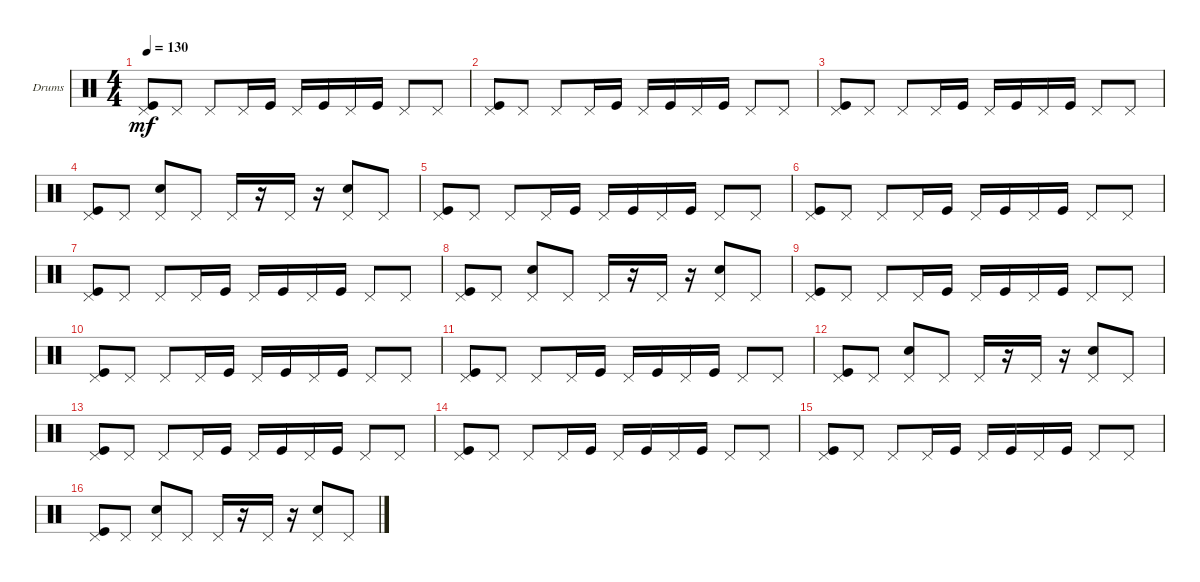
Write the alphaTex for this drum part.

\bracketExtendMode groupsimilarinstruments
\firstSystemTrackNameOrientation horizontal
\otherSystemsTrackNameOrientation horizontal
\track ("Drums" "Drums") {instrument percussion}
\staff {score}
\articulation defaults
\ts (4 4)
\tempo 130
\clef neutral
\ks c
("Kick (hit)" "Pedal Hi-Hat (hit)").8{dy mf} "Pedal Hi-Hat (hit)".8 "Pedal Hi-Hat (hit)".8 "Pedal Hi-Hat (hit)".16 "Kick (hit)".16 "Pedal Hi-Hat (hit)".16 "Kick (hit)".16 "Pedal Hi-Hat (hit)".16 "Kick (hit)".16 "Pedal Hi-Hat (hit)".8 "Pedal Hi-Hat (hit)".8 |
("Kick (hit)" "Pedal Hi-Hat (hit)").8 "Pedal Hi-Hat (hit)".8 "Pedal Hi-Hat (hit)".8 "Pedal Hi-Hat (hit)".16 "Kick (hit)".16 "Pedal Hi-Hat (hit)".16 "Kick (hit)".16 "Pedal Hi-Hat (hit)".16 "Kick (hit)".16 "Pedal Hi-Hat (hit)".8 "Pedal Hi-Hat (hit)".8 |
("Kick (hit)" "Pedal Hi-Hat (hit)").8 "Pedal Hi-Hat (hit)".8 "Pedal Hi-Hat (hit)".8 "Pedal Hi-Hat (hit)".16 "Kick (hit)".16 "Pedal Hi-Hat (hit)".16 "Kick (hit)".16 "Pedal Hi-Hat (hit)".16 "Kick (hit)".16 "Pedal Hi-Hat (hit)".8 "Pedal Hi-Hat (hit)".8 |
("Kick (hit)" "Pedal Hi-Hat (hit)").8 "Pedal Hi-Hat (hit)".8 ("Snare (hit) 2" "Pedal Hi-Hat (hit)").8 "Pedal Hi-Hat (hit)".8 "Pedal Hi-Hat (hit)".16 r.16 "Pedal Hi-Hat (hit)".16 r.16 ("Snare (hit) 2" "Pedal Hi-Hat (hit)").8 "Pedal Hi-Hat (hit)".8 |
("Kick (hit)" "Pedal Hi-Hat (hit)").8 "Pedal Hi-Hat (hit)".8 "Pedal Hi-Hat (hit)".8 "Pedal Hi-Hat (hit)".16 "Kick (hit)".16 "Pedal Hi-Hat (hit)".16 "Kick (hit)".16 "Pedal Hi-Hat (hit)".16 "Kick (hit)".16 "Pedal Hi-Hat (hit)".8 "Pedal Hi-Hat (hit)".8 |
("Kick (hit)" "Pedal Hi-Hat (hit)").8 "Pedal Hi-Hat (hit)".8 "Pedal Hi-Hat (hit)".8 "Pedal Hi-Hat (hit)".16 "Kick (hit)".16 "Pedal Hi-Hat (hit)".16 "Kick (hit)".16 "Pedal Hi-Hat (hit)".16 "Kick (hit)".16 "Pedal Hi-Hat (hit)".8 "Pedal Hi-Hat (hit)".8 |
("Kick (hit)" "Pedal Hi-Hat (hit)").8 "Pedal Hi-Hat (hit)".8 "Pedal Hi-Hat (hit)".8 "Pedal Hi-Hat (hit)".16 "Kick (hit)".16 "Pedal Hi-Hat (hit)".16 "Kick (hit)".16 "Pedal Hi-Hat (hit)".16 "Kick (hit)".16 "Pedal Hi-Hat (hit)".8 "Pedal Hi-Hat (hit)".8 |
("Kick (hit)" "Pedal Hi-Hat (hit)").8 "Pedal Hi-Hat (hit)".8 ("Snare (hit) 2" "Pedal Hi-Hat (hit)").8 "Pedal Hi-Hat (hit)".8 "Pedal Hi-Hat (hit)".16 r.16 "Pedal Hi-Hat (hit)".16 r.16 ("Snare (hit) 2" "Pedal Hi-Hat (hit)").8 "Pedal Hi-Hat (hit)".8 |
("Kick (hit)" "Pedal Hi-Hat (hit)").8 "Pedal Hi-Hat (hit)".8 "Pedal Hi-Hat (hit)".8 "Pedal Hi-Hat (hit)".16 "Kick (hit)".16 "Pedal Hi-Hat (hit)".16 "Kick (hit)".16 "Pedal Hi-Hat (hit)".16 "Kick (hit)".16 "Pedal Hi-Hat (hit)".8 "Pedal Hi-Hat (hit)".8 |
("Kick (hit)" "Pedal Hi-Hat (hit)").8 "Pedal Hi-Hat (hit)".8 "Pedal Hi-Hat (hit)".8 "Pedal Hi-Hat (hit)".16 "Kick (hit)".16 "Pedal Hi-Hat (hit)".16 "Kick (hit)".16 "Pedal Hi-Hat (hit)".16 "Kick (hit)".16 "Pedal Hi-Hat (hit)".8 "Pedal Hi-Hat (hit)".8 |
("Kick (hit)" "Pedal Hi-Hat (hit)").8 "Pedal Hi-Hat (hit)".8 "Pedal Hi-Hat (hit)".8 "Pedal Hi-Hat (hit)".16 "Kick (hit)".16 "Pedal Hi-Hat (hit)".16 "Kick (hit)".16 "Pedal Hi-Hat (hit)".16 "Kick (hit)".16 "Pedal Hi-Hat (hit)".8 "Pedal Hi-Hat (hit)".8 |
("Kick (hit)" "Pedal Hi-Hat (hit)").8 "Pedal Hi-Hat (hit)".8 ("Snare (hit) 2" "Pedal Hi-Hat (hit)").8 "Pedal Hi-Hat (hit)".8 "Pedal Hi-Hat (hit)".16 r.16 "Pedal Hi-Hat (hit)".16 r.16 ("Snare (hit) 2" "Pedal Hi-Hat (hit)").8 "Pedal Hi-Hat (hit)".8 |
("Kick (hit)" "Pedal Hi-Hat (hit)").8 "Pedal Hi-Hat (hit)".8 "Pedal Hi-Hat (hit)".8 "Pedal Hi-Hat (hit)".16 "Kick (hit)".16 "Pedal Hi-Hat (hit)".16 "Kick (hit)".16 "Pedal Hi-Hat (hit)".16 "Kick (hit)".16 "Pedal Hi-Hat (hit)".8 "Pedal Hi-Hat (hit)".8 |
("Kick (hit)" "Pedal Hi-Hat (hit)").8 "Pedal Hi-Hat (hit)".8 "Pedal Hi-Hat (hit)".8 "Pedal Hi-Hat (hit)".16 "Kick (hit)".16 "Pedal Hi-Hat (hit)".16 "Kick (hit)".16 "Pedal Hi-Hat (hit)".16 "Kick (hit)".16 "Pedal Hi-Hat (hit)".8 "Pedal Hi-Hat (hit)".8 |
("Kick (hit)" "Pedal Hi-Hat (hit)").8 "Pedal Hi-Hat (hit)".8 "Pedal Hi-Hat (hit)".8 "Pedal Hi-Hat (hit)".16 "Kick (hit)".16 "Pedal Hi-Hat (hit)".16 "Kick (hit)".16 "Pedal Hi-Hat (hit)".16 "Kick (hit)".16 "Pedal Hi-Hat (hit)".8 "Pedal Hi-Hat (hit)".8 |
("Kick (hit)" "Pedal Hi-Hat (hit)").8 "Pedal Hi-Hat (hit)".8 ("Snare (hit) 2" "Pedal Hi-Hat (hit)").8 "Pedal Hi-Hat (hit)".8 "Pedal Hi-Hat (hit)".16 r.16 "Pedal Hi-Hat (hit)".16 r.16 ("Snare (hit) 2" "Pedal Hi-Hat (hit)").8 "Pedal Hi-Hat (hit)".8
